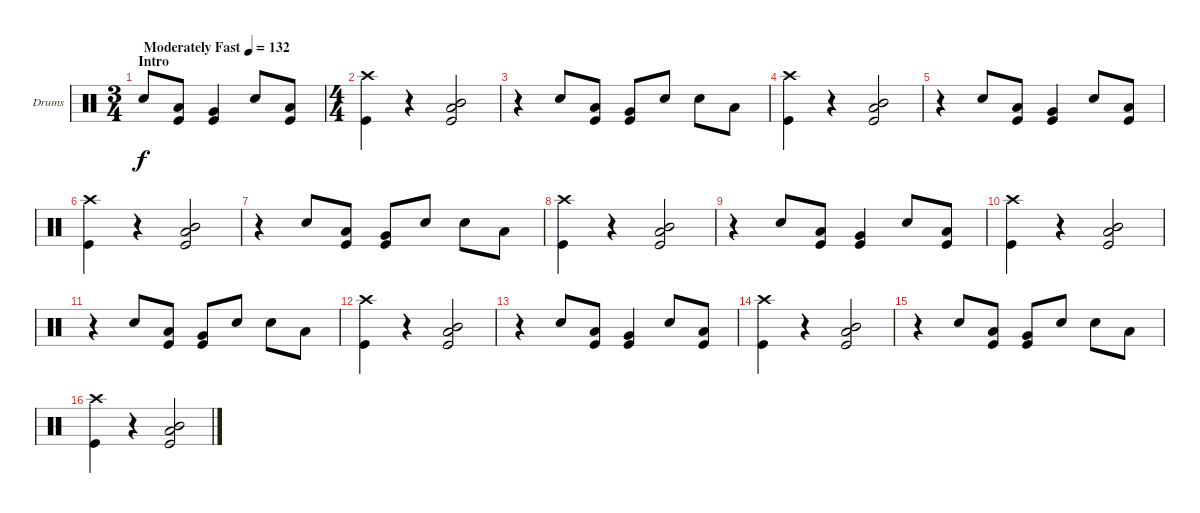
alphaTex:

\bracketExtendMode groupsimilarinstruments
\firstSystemTrackNameOrientation horizontal
\otherSystemsTrackNameOrientation horizontal
\track ("Drumkit" "Drums") {instrument percussion}
\staff {score}
\articulation defaults
\ts (3 4)
\section ("" "Intro")
\tempo (132 "Moderately Fast")
\clef neutral
\ks c "Snare (hit) 2".8{dy f}
("Low Tom (hit)" "Kick (hit)").8 ("Very Low Tom (hit)" "Kick (hit)").4 "Snare (hit) 2".8 ("Low Tom (hit)" "Kick (hit)").8 |
\ts (4 4)
\beaming (8 2 2 2 2)
("Crash high (hit)" "Kick (hit)").4 r.4 ("Mid Tom (hit)" "Low Tom (hit)" "Kick (hit)").2 |
r.4 "Snare (hit) 2".8 ("Low Tom (hit)" "Kick (hit)").8 ("Very Low Tom (hit)" "Kick (hit)").8 "Snare (hit) 2".8 "Snare (hit) 2".8 "Low Tom (hit)".8 |
("Crash high (hit)" "Kick (hit)").4 r.4 ("Mid Tom (hit)" "Low Tom (hit)" "Kick (hit)").2 |
r.4 "Snare (hit) 2".8 ("Low Tom (hit)" "Kick (hit)").8 ("Very Low Tom (hit)" "Kick (hit)").4 "Snare (hit) 2".8 ("Low Tom (hit)" "Kick (hit)").8 |
("Crash high (hit)" "Kick (hit)").4 r.4 ("Mid Tom (hit)" "Low Tom (hit)" "Kick (hit)").2 |
r.4 "Snare (hit) 2".8 ("Low Tom (hit)" "Kick (hit)").8 ("Very Low Tom (hit)" "Kick (hit)").8 "Snare (hit) 2".8 "Snare (hit) 2".8 "Low Tom (hit)".8 |
("Crash high (hit)" "Kick (hit)").4 r.4 ("Mid Tom (hit)" "Low Tom (hit)" "Kick (hit)").2 |
r.4 "Snare (hit) 2".8 ("Low Tom (hit)" "Kick (hit)").8 ("Very Low Tom (hit)" "Kick (hit)").4 "Snare (hit) 2".8 ("Low Tom (hit)" "Kick (hit)").8 |
("Crash high (hit)" "Kick (hit)").4 r.4 ("Mid Tom (hit)" "Low Tom (hit)" "Kick (hit)").2 |
r.4 "Snare (hit) 2".8 ("Low Tom (hit)" "Kick (hit)").8 ("Very Low Tom (hit)" "Kick (hit)").8 "Snare (hit) 2".8 "Snare (hit) 2".8 "Low Tom (hit)".8 |
("Crash high (hit)" "Kick (hit)").4 r.4 ("Mid Tom (hit)" "Low Tom (hit)" "Kick (hit)").2 |
r.4 "Snare (hit) 2".8 ("Low Tom (hit)" "Kick (hit)").8 ("Very Low Tom (hit)" "Kick (hit)").4 "Snare (hit) 2".8 ("Low Tom (hit)" "Kick (hit)").8 |
("Crash high (hit)" "Kick (hit)").4 r.4 ("Mid Tom (hit)" "Low Tom (hit)" "Kick (hit)").2 |
r.4 "Snare (hit) 2".8 ("Low Tom (hit)" "Kick (hit)").8 ("Very Low Tom (hit)" "Kick (hit)").8 "Snare (hit) 2".8 "Snare (hit) 2".8 "Low Tom (hit)".8 |
("Crash high (hit)" "Kick (hit)").4 r.4 ("Mid Tom (hit)" "Low Tom (hit)" "Kick (hit)").2
